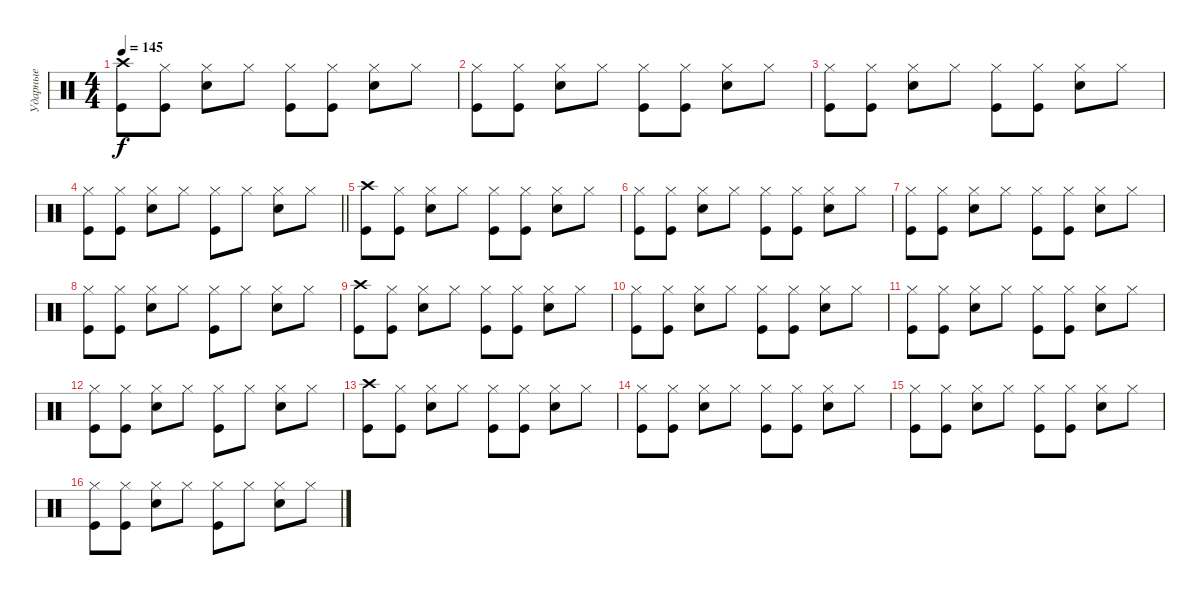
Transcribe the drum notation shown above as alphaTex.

\track ("Ударные" "Ударные") {instrument percussion}
\staff {score}
\articulation defaults
\ts (4 4)
\tempo 145
\clef neutral
\ks c
("Crash high (hit)" "Kick (hit)").8{dy f} ("Hi-Hat (closed)" "Kick (hit)").8 ("Hi-Hat (closed)" "Snare (hit) 2").8 "Hi-Hat (closed)".8 ("Hi-Hat (closed)" "Kick (hit)").8 ("Hi-Hat (closed)" "Kick (hit)").8 ("Hi-Hat (closed)" "Snare (hit) 2").8 "Hi-Hat (closed)".8 |
("Hi-Hat (closed)" "Kick (hit)").8 ("Hi-Hat (closed)" "Kick (hit)").8 ("Hi-Hat (closed)" "Snare (hit) 2").8 "Hi-Hat (closed)".8 ("Hi-Hat (closed)" "Kick (hit)").8 ("Hi-Hat (closed)" "Kick (hit)").8 ("Hi-Hat (closed)" "Snare (hit) 2").8 "Hi-Hat (closed)".8 |
("Hi-Hat (closed)" "Kick (hit)").8 ("Hi-Hat (closed)" "Kick (hit)").8 ("Hi-Hat (closed)" "Snare (hit) 2").8 "Hi-Hat (closed)".8 ("Hi-Hat (closed)" "Kick (hit)").8 ("Hi-Hat (closed)" "Kick (hit)").8 ("Hi-Hat (closed)" "Snare (hit) 2").8 "Hi-Hat (closed)".8 |
\barLineRight lightlight
("Hi-Hat (closed)" "Kick (hit)").8 ("Hi-Hat (closed)" "Kick (hit)").8 ("Hi-Hat (closed)" "Snare (hit) 2").8 "Hi-Hat (closed)".8 ("Hi-Hat (closed)" "Kick (hit)").8 "Hi-Hat (closed)".8 ("Hi-Hat (closed)" "Snare (hit) 2").8 "Hi-Hat (closed)".8 |
("Crash high (hit)" "Kick (hit)").8 ("Hi-Hat (closed)" "Kick (hit)").8 ("Hi-Hat (closed)" "Snare (hit) 2").8 "Hi-Hat (closed)".8 ("Hi-Hat (closed)" "Kick (hit)").8 ("Hi-Hat (closed)" "Kick (hit)").8 ("Hi-Hat (closed)" "Snare (hit) 2").8 "Hi-Hat (closed)".8 |
("Hi-Hat (closed)" "Kick (hit)").8 ("Hi-Hat (closed)" "Kick (hit)").8 ("Hi-Hat (closed)" "Snare (hit) 2").8 "Hi-Hat (closed)".8 ("Hi-Hat (closed)" "Kick (hit)").8 ("Hi-Hat (closed)" "Kick (hit)").8 ("Hi-Hat (closed)" "Snare (hit) 2").8 "Hi-Hat (closed)".8 |
("Hi-Hat (closed)" "Kick (hit)").8 ("Hi-Hat (closed)" "Kick (hit)").8 ("Hi-Hat (closed)" "Snare (hit) 2").8 "Hi-Hat (closed)".8 ("Hi-Hat (closed)" "Kick (hit)").8 ("Hi-Hat (closed)" "Kick (hit)").8 ("Hi-Hat (closed)" "Snare (hit) 2").8 "Hi-Hat (closed)".8 |
("Hi-Hat (closed)" "Kick (hit)").8 ("Hi-Hat (closed)" "Kick (hit)").8 ("Hi-Hat (closed)" "Snare (hit) 2").8 "Hi-Hat (closed)".8 ("Hi-Hat (closed)" "Kick (hit)").8 "Hi-Hat (closed)".8 ("Hi-Hat (closed)" "Snare (hit) 2").8 "Hi-Hat (closed)".8 |
("Crash high (hit)" "Kick (hit)").8 ("Hi-Hat (closed)" "Kick (hit)").8 ("Hi-Hat (closed)" "Snare (hit) 2").8 "Hi-Hat (closed)".8 ("Hi-Hat (closed)" "Kick (hit)").8 ("Hi-Hat (closed)" "Kick (hit)").8 ("Hi-Hat (closed)" "Snare (hit) 2").8 "Hi-Hat (closed)".8 |
("Hi-Hat (closed)" "Kick (hit)").8 ("Hi-Hat (closed)" "Kick (hit)").8 ("Hi-Hat (closed)" "Snare (hit) 2").8 "Hi-Hat (closed)".8 ("Hi-Hat (closed)" "Kick (hit)").8 ("Hi-Hat (closed)" "Kick (hit)").8 ("Hi-Hat (closed)" "Snare (hit) 2").8 "Hi-Hat (closed)".8 |
("Hi-Hat (closed)" "Kick (hit)").8 ("Hi-Hat (closed)" "Kick (hit)").8 ("Hi-Hat (closed)" "Snare (hit) 2").8 "Hi-Hat (closed)".8 ("Hi-Hat (closed)" "Kick (hit)").8 ("Hi-Hat (closed)" "Kick (hit)").8 ("Hi-Hat (closed)" "Snare (hit) 2").8 "Hi-Hat (closed)".8 |
("Hi-Hat (closed)" "Kick (hit)").8 ("Hi-Hat (closed)" "Kick (hit)").8 ("Hi-Hat (closed)" "Snare (hit) 2").8 "Hi-Hat (closed)".8 ("Hi-Hat (closed)" "Kick (hit)").8 "Hi-Hat (closed)".8 ("Hi-Hat (closed)" "Snare (hit) 2").8 "Hi-Hat (closed)".8 |
("Crash high (hit)" "Kick (hit)").8 ("Hi-Hat (closed)" "Kick (hit)").8 ("Hi-Hat (closed)" "Snare (hit) 2").8 "Hi-Hat (closed)".8 ("Hi-Hat (closed)" "Kick (hit)").8 ("Hi-Hat (closed)" "Kick (hit)").8 ("Hi-Hat (closed)" "Snare (hit) 2").8 "Hi-Hat (closed)".8 |
("Hi-Hat (closed)" "Kick (hit)").8 ("Hi-Hat (closed)" "Kick (hit)").8 ("Hi-Hat (closed)" "Snare (hit) 2").8 "Hi-Hat (closed)".8 ("Hi-Hat (closed)" "Kick (hit)").8 ("Hi-Hat (closed)" "Kick (hit)").8 ("Hi-Hat (closed)" "Snare (hit) 2").8 "Hi-Hat (closed)".8 |
("Hi-Hat (closed)" "Kick (hit)").8 ("Hi-Hat (closed)" "Kick (hit)").8 ("Hi-Hat (closed)" "Snare (hit) 2").8 "Hi-Hat (closed)".8 ("Hi-Hat (closed)" "Kick (hit)").8 ("Hi-Hat (closed)" "Kick (hit)").8 ("Hi-Hat (closed)" "Snare (hit) 2").8 "Hi-Hat (closed)".8 |
("Hi-Hat (closed)" "Kick (hit)").8 ("Hi-Hat (closed)" "Kick (hit)").8 ("Hi-Hat (closed)" "Snare (hit) 2").8 "Hi-Hat (closed)".8 ("Hi-Hat (closed)" "Kick (hit)").8 "Hi-Hat (closed)".8 ("Hi-Hat (closed)" "Snare (hit) 2").8 "Hi-Hat (closed)".8
